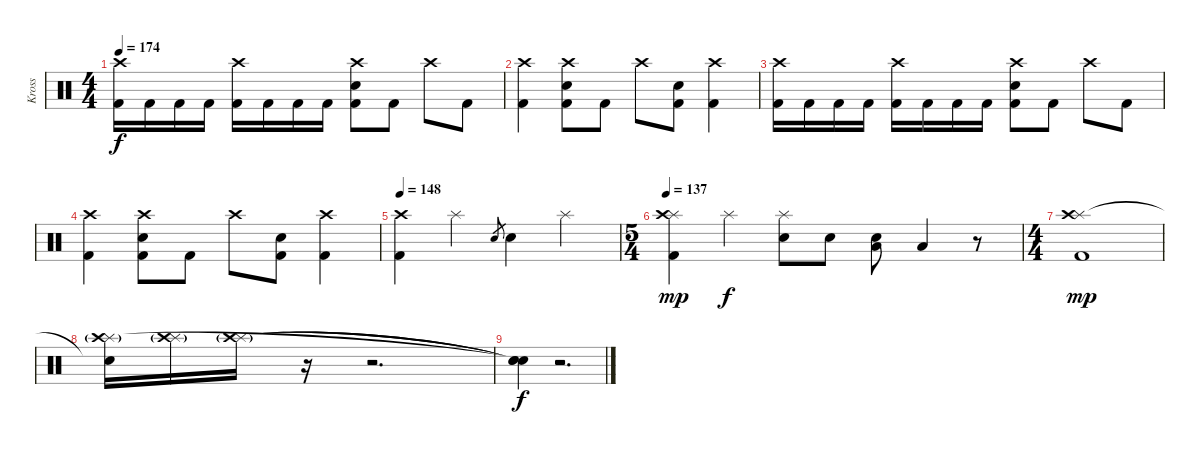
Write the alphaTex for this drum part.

\track ("Kross" "Kross") {instrument percussion}
\staff {score}
\articulation defaults
\ts (4 4)
\tempo 174
\clef neutral
\ks c
("Crash high (hit)" "Kick (hit) 2").16{dy f} "Kick (hit) 2".16 "Kick (hit) 2".16 "Kick (hit) 2".16 ("Crash high (hit)" "Kick (hit) 2").16 "Kick (hit) 2".16 "Kick (hit) 2".16 "Kick (hit) 2".16 ("Crash high (hit)" "Electric Snare (hit)" "Kick (hit) 2").8 "Kick (hit) 2".8 "Crash high (hit)".8 "Kick (hit) 2".8 |
("Crash high (hit)" "Kick (hit) 2").4 ("Crash high (hit)" "Electric Snare (hit)" "Kick (hit) 2").8 "Kick (hit) 2".8 "Crash high (hit)".8 ("Electric Snare (hit)" "Kick (hit) 2").8 ("Crash high (hit)" "Kick (hit) 2").4 |
("Crash high (hit)" "Kick (hit) 2").16 "Kick (hit) 2".16 "Kick (hit) 2".16 "Kick (hit) 2".16 ("Crash high (hit)" "Kick (hit) 2").16 "Kick (hit) 2".16 "Kick (hit) 2".16 "Kick (hit) 2".16 ("Crash high (hit)" "Electric Snare (hit)" "Kick (hit) 2").8 "Kick (hit) 2".8 "Crash high (hit)".8 "Kick (hit) 2".8 |
("Crash high (hit)" "Kick (hit) 2").4 ("Crash high (hit)" "Electric Snare (hit)" "Kick (hit) 2").8 "Kick (hit) 2".8 "Crash high (hit)".8 ("Electric Snare (hit)" "Kick (hit) 2").8 ("Crash high (hit)" "Kick (hit) 2").4 |
\tempo 148
("Crash high (hit)" "Kick (hit) 2").4 "Splash (hit)".4 "Electric Snare (hit)".8{gr} "Electric Snare (hit)".4 "Splash (hit)".4 |
\ts (5 4)
\tempo 137
("Splash (hit)" "Crash high (hit)" "Kick (hit) 2").4{dy mp} "Splash (hit)".4{dy f} ("Splash (hit)" "Electric Snare (hit)").8 "Electric Snare (hit)".8 ("Low Tom (hit)" "Electric Snare (hit)").8 "Low Tom (hit)".4 r.8 |
\ts (4 4)
("Splash (hit)" "Crash high (hit)" "Kick (hit) 2").1{dy mp} |
("Snare (hit)"{t} "Splash (hit)"{g} "Crash high (hit)"{g}).16{volume 10} ("Splash (hit)"{g} "Crash high (hit)"{g}).16 ("Splash (hit)"{g} "Crash high (hit)"{g}).16 r.16 r.2{d} |
("Snare (hit)"{t} "Snare (hit)"{t} "Snare (hit)"{t}).4{dy f volume 10} r.2{d}
